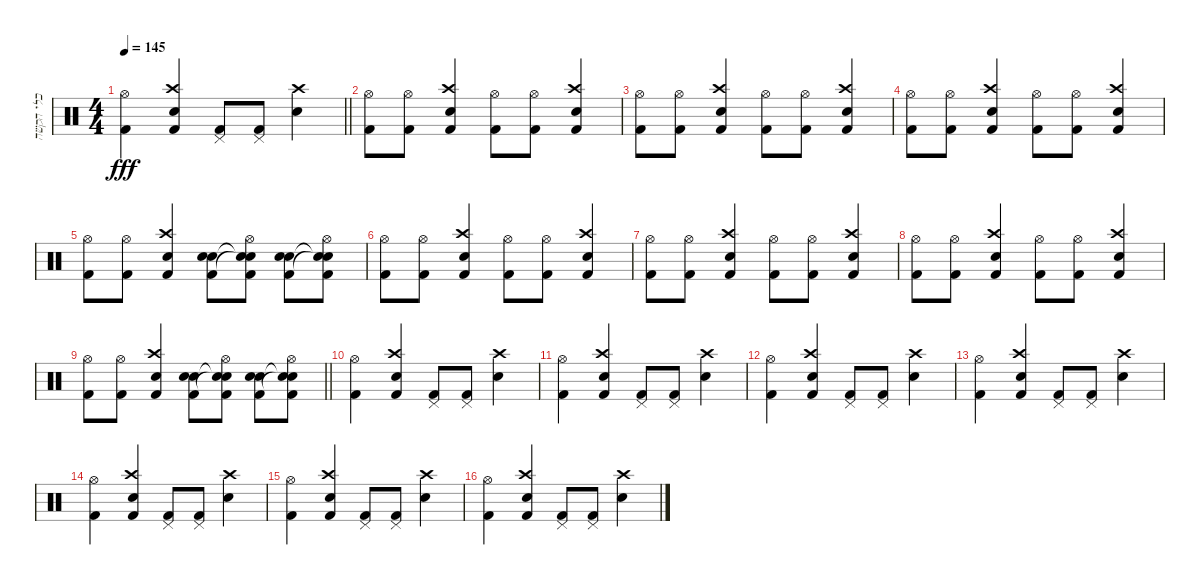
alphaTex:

\track ("כלי הקשה" "כלי הקשה") {instrument percussion bank 127}
\staff {score}
\articulation defaults
\ts (4 4)
\tempo 145
\clef neutral
\barLineRight lightlight
\ks c
("Hi-Hat (open)" "Kick (hit) 2").4{dy fff} ("Crash high (hit)" "Snare (hit) 2" "Kick (hit) 2").4 ("Pedal Hi-Hat (hit)" "Kick (hit) 2").8 ("Pedal Hi-Hat (hit)" "Kick (hit) 2").8 ("Crash high (hit)" "Snare (hit) 2").4 |
("Hi-Hat (open)" "Kick (hit) 2").8 ("Hi-Hat (open)" "Kick (hit) 2").8 ("Crash high (hit)" "Snare (hit) 2" "Kick (hit) 2").4 ("Hi-Hat (open)" "Kick (hit) 2").8 ("Hi-Hat (open)" "Kick (hit) 2").8 ("Crash high (hit)" "Snare (hit) 2" "Kick (hit) 2").4 |
("Hi-Hat (open)" "Kick (hit) 2").8 ("Hi-Hat (open)" "Kick (hit) 2").8 ("Crash high (hit)" "Snare (hit) 2" "Kick (hit) 2").4 ("Hi-Hat (open)" "Kick (hit) 2").8 ("Hi-Hat (open)" "Kick (hit) 2").8 ("Crash high (hit)" "Snare (hit) 2" "Kick (hit) 2").4 |
("Hi-Hat (open)" "Kick (hit) 2").8 ("Hi-Hat (open)" "Kick (hit) 2").8 ("Crash high (hit)" "Snare (hit) 2" "Kick (hit) 2").4 ("Hi-Hat (open)" "Kick (hit) 2").8 ("Hi-Hat (open)" "Kick (hit) 2").8 ("Crash high (hit)" "Snare (hit) 2" "Kick (hit) 2").4 |
("Hi-Hat (open)" "Kick (hit) 2").8 ("Hi-Hat (open)" "Kick (hit) 2").8 ("Crash high (hit)" "Snare (hit) 2" "Kick (hit) 2").4 ("Snare (hit) 2" "Snare (hit) 2" "Kick (hit) 2").8 ("Hi-Hat (open)" "Snare (hit)"{t} "Snare (hit)"{t} "Kick (hit) 2").8 ("Snare (hit) 2" "Snare (hit) 2" "Kick (hit) 2").8 ("Hi-Hat (open)" "Snare (hit)"{t} "Snare (hit)"{t} "Kick (hit) 2").8 |
("Hi-Hat (open)" "Kick (hit) 2").8 ("Hi-Hat (open)" "Kick (hit) 2").8 ("Crash high (hit)" "Snare (hit) 2" "Kick (hit) 2").4 ("Hi-Hat (open)" "Kick (hit) 2").8 ("Hi-Hat (open)" "Kick (hit) 2").8 ("Crash high (hit)" "Snare (hit) 2" "Kick (hit) 2").4 |
("Hi-Hat (open)" "Kick (hit) 2").8 ("Hi-Hat (open)" "Kick (hit) 2").8 ("Crash high (hit)" "Snare (hit) 2" "Kick (hit) 2").4 ("Hi-Hat (open)" "Kick (hit) 2").8 ("Hi-Hat (open)" "Kick (hit) 2").8 ("Crash high (hit)" "Snare (hit) 2" "Kick (hit) 2").4 |
("Hi-Hat (open)" "Kick (hit) 2").8 ("Hi-Hat (open)" "Kick (hit) 2").8 ("Crash high (hit)" "Snare (hit) 2" "Kick (hit) 2").4 ("Hi-Hat (open)" "Kick (hit) 2").8 ("Hi-Hat (open)" "Kick (hit) 2").8 ("Crash high (hit)" "Snare (hit) 2" "Kick (hit) 2").4 |
\barLineRight lightlight
("Hi-Hat (open)" "Kick (hit) 2").8 ("Hi-Hat (open)" "Kick (hit) 2").8 ("Crash high (hit)" "Snare (hit) 2" "Kick (hit) 2").4 ("Snare (hit) 2" "Snare (hit) 2" "Kick (hit) 2").8 ("Hi-Hat (open)" "Snare (hit)"{t} "Snare (hit)"{t} "Kick (hit) 2").8 ("Snare (hit) 2" "Snare (hit) 2" "Kick (hit) 2").8 ("Hi-Hat (open)" "Snare (hit)"{t} "Snare (hit)"{t} "Kick (hit) 2").8 |
("Hi-Hat (open)" "Kick (hit) 2").4 ("Crash high (hit)" "Snare (hit) 2" "Kick (hit) 2").4 ("Pedal Hi-Hat (hit)" "Kick (hit) 2").8 ("Pedal Hi-Hat (hit)" "Kick (hit) 2").8 ("Crash high (hit)" "Snare (hit) 2").4 |
("Hi-Hat (open)" "Kick (hit) 2").4 ("Crash high (hit)" "Snare (hit) 2" "Kick (hit) 2").4 ("Pedal Hi-Hat (hit)" "Kick (hit) 2").8 ("Pedal Hi-Hat (hit)" "Kick (hit) 2").8 ("Crash high (hit)" "Snare (hit) 2").4 |
("Hi-Hat (open)" "Kick (hit) 2").4 ("Crash high (hit)" "Snare (hit) 2" "Kick (hit) 2").4 ("Pedal Hi-Hat (hit)" "Kick (hit) 2").8 ("Pedal Hi-Hat (hit)" "Kick (hit) 2").8 ("Crash high (hit)" "Snare (hit) 2").4 |
("Hi-Hat (open)" "Kick (hit) 2").4 ("Crash high (hit)" "Snare (hit) 2" "Kick (hit) 2").4 ("Pedal Hi-Hat (hit)" "Kick (hit) 2").8 ("Pedal Hi-Hat (hit)" "Kick (hit) 2").8 ("Crash high (hit)" "Snare (hit) 2").4 |
("Hi-Hat (open)" "Kick (hit) 2").4 ("Crash high (hit)" "Snare (hit) 2" "Kick (hit) 2").4 ("Pedal Hi-Hat (hit)" "Kick (hit) 2").8 ("Pedal Hi-Hat (hit)" "Kick (hit) 2").8 ("Crash high (hit)" "Snare (hit) 2").4 |
("Hi-Hat (open)" "Kick (hit) 2").4 ("Crash high (hit)" "Snare (hit) 2" "Kick (hit) 2").4 ("Pedal Hi-Hat (hit)" "Kick (hit) 2").8 ("Pedal Hi-Hat (hit)" "Kick (hit) 2").8 ("Crash high (hit)" "Snare (hit) 2").4 |
("Hi-Hat (open)" "Kick (hit) 2").4 ("Crash high (hit)" "Snare (hit) 2" "Kick (hit) 2").4 ("Pedal Hi-Hat (hit)" "Kick (hit) 2").8 ("Pedal Hi-Hat (hit)" "Kick (hit) 2").8 ("Crash high (hit)" "Snare (hit) 2").4
